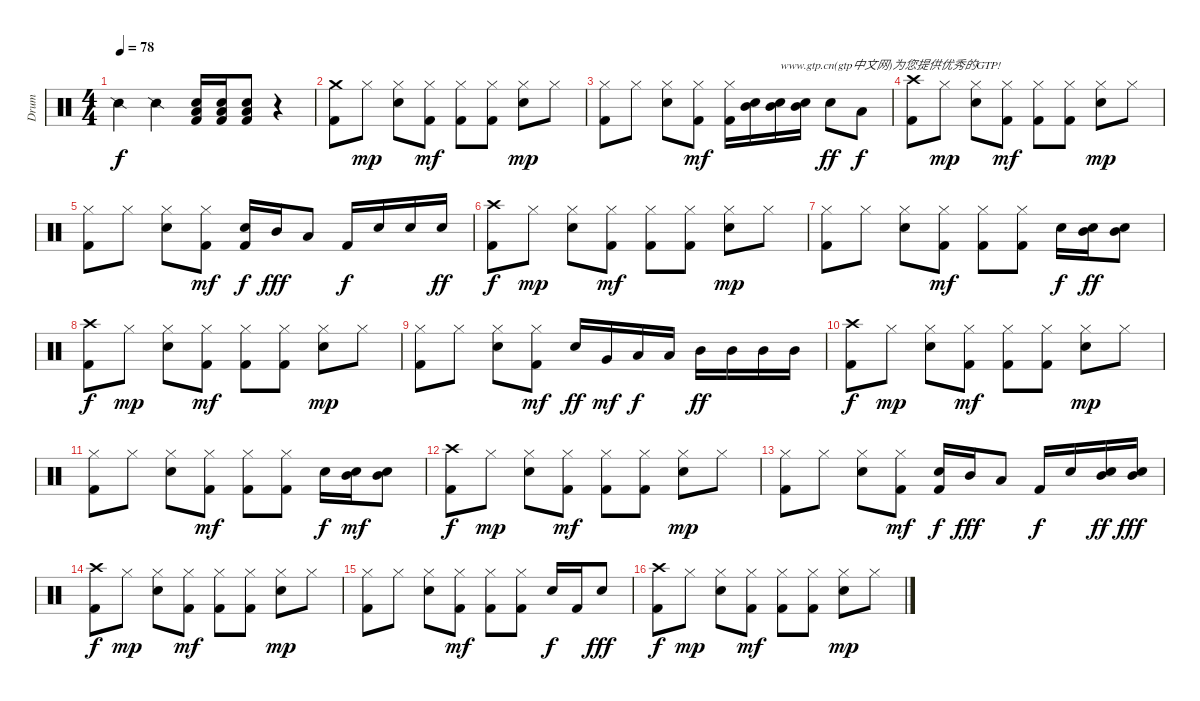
\track ("Drum" "Drum") {instrument percussion}
\staff {score}
\articulation defaults
\ts (4 4)
\tempo 78
\clef neutral
\ks c "Snare (side stick) 2".4{dy f} "Snare (side stick) 2".4
("Low Floor Tom (hit)" "Electric Snare (hit)" "Kick (hit) 2").16 ("Low Floor Tom (hit)" "Electric Snare (hit)" "Kick (hit) 2").16 ("Low Floor Tom (hit)" "Electric Snare (hit)" "Kick (hit) 2").8 r.4 |
("Crash medium (hit)" "Kick (hit) 2").8 "Hi-Hat (closed)".8{dy mp} ("Hi-Hat (closed)" "Electric Snare (hit)").8 ("Hi-Hat (closed)" "Kick (hit) 2").8{dy mf} ("Hi-Hat (closed)" "Kick (hit) 2").8 ("Hi-Hat (closed)" "Kick (hit) 2").8 ("Hi-Hat (closed)" "Electric Snare (hit)").8{dy mp} "Hi-Hat (closed)".8 |
("Hi-Hat (closed)" "Kick (hit) 2").8 "Hi-Hat (closed)".8 ("Hi-Hat (closed)" "Electric Snare (hit)").8 ("Hi-Hat (closed)" "Kick (hit) 2").8{dy mf} ("Hi-Hat (closed)" "Kick (hit) 2").16 ("Mid Tom (hit)" "Electric Snare (hit)").16 ("Mid Tom (hit)" "Electric Snare (hit)").16{txt "www.gtp.cn(gtp中文网)为您提供优秀的GTP!"} ("Mid Tom (hit)" "Electric Snare (hit)").16 "Electric Snare (hit)".8{dy ff} "Low Tom (hit)".8{dy f} |
("Crash high (hit)" "Kick (hit) 2").8 "Hi-Hat (closed)".8{dy mp} ("Hi-Hat (closed)" "Electric Snare (hit)").8 ("Hi-Hat (closed)" "Kick (hit) 2").8{dy mf} ("Hi-Hat (closed)" "Kick (hit) 2").8 ("Hi-Hat (closed)" "Kick (hit) 2").8 ("Hi-Hat (closed)" "Electric Snare (hit)").8{dy mp} "Hi-Hat (closed)".8 |
("Hi-Hat (closed)" "Kick (hit) 2").8 "Hi-Hat (closed)".8 ("Hi-Hat (closed)" "Electric Snare (hit)").8 ("Hi-Hat (closed)" "Kick (hit) 2").8{dy mf} ("Electric Snare (hit)" "Kick (hit) 2").16{dy f} "Mid Tom (hit)".16{dy fff} "Low Tom (hit)".8 "Kick (hit) 2".16{dy f} "Snare (hit) 2".16 "Snare (hit) 2".16 "Snare (hit) 2".16{dy ff} |
("Crash high (hit)" "Kick (hit) 2").8{dy f} "Hi-Hat (closed)".8{dy mp} ("Hi-Hat (closed)" "Electric Snare (hit)").8 ("Hi-Hat (closed)" "Kick (hit) 2").8{dy mf} ("Hi-Hat (closed)" "Kick (hit) 2").8 ("Hi-Hat (closed)" "Kick (hit) 2").8 ("Hi-Hat (closed)" "Electric Snare (hit)").8{dy mp} "Hi-Hat (closed)".8 |
("Hi-Hat (closed)" "Kick (hit) 2").8 "Hi-Hat (closed)".8 ("Hi-Hat (closed)" "Electric Snare (hit)").8 ("Hi-Hat (closed)" "Kick (hit) 2").8{dy mf} ("Hi-Hat (closed)" "Kick (hit) 2").8 ("Hi-Hat (closed)" "Kick (hit) 2").8 "Electric Snare (hit)".16{dy f} ("Mid Tom (hit)" "Snare (hit) 2").16{dy ff} ("Mid Tom (hit)" "Snare (hit) 2").8 |
("Crash high (hit)" "Kick (hit) 2").8{dy f} "Hi-Hat (closed)".8{dy mp} ("Hi-Hat (closed)" "Electric Snare (hit)").8 ("Hi-Hat (closed)" "Kick (hit) 2").8{dy mf} ("Hi-Hat (closed)" "Kick (hit) 2").8 ("Hi-Hat (closed)" "Kick (hit) 2").8 ("Hi-Hat (closed)" "Electric Snare (hit)").8{dy mp} "Hi-Hat (closed)".8 |
("Hi-Hat (closed)" "Kick (hit) 2").8 "Hi-Hat (closed)".8 ("Hi-Hat (closed)" "Electric Snare (hit)").8 ("Hi-Hat (closed)" "Kick (hit) 2").8{dy mf} "Electric Snare (hit)".16{dy ff} "Very Low Tom (hit)".16{dy mf} "Low Floor Tom (hit)".16{dy f} "Low Floor Tom (hit)".16 "Mid Tom (hit)".16{dy ff} "Mid Tom (hit)".16 "Mid Tom (hit)".16 "Mid Tom (hit)".16 |
("Crash high (hit)" "Kick (hit) 2").8{dy f} "Hi-Hat (closed)".8{dy mp} ("Hi-Hat (closed)" "Electric Snare (hit)").8 ("Hi-Hat (closed)" "Kick (hit) 2").8{dy mf} ("Hi-Hat (closed)" "Kick (hit) 2").8 ("Hi-Hat (closed)" "Kick (hit) 2").8 ("Hi-Hat (closed)" "Electric Snare (hit)").8{dy mp} "Hi-Hat (closed)".8 |
("Hi-Hat (closed)" "Kick (hit) 2").8 "Hi-Hat (closed)".8 ("Hi-Hat (closed)" "Electric Snare (hit)").8 ("Hi-Hat (closed)" "Kick (hit) 2").8{dy mf} ("Hi-Hat (closed)" "Kick (hit) 2").8 ("Hi-Hat (closed)" "Kick (hit) 2").8 "Electric Snare (hit)".16{dy f} ("Mid Tom (hit)" "Snare (hit) 2").16{dy mf} ("Mid Tom (hit)" "Snare (hit) 2").8 |
("Crash high (hit)" "Kick (hit) 2").8{dy f} "Hi-Hat (closed)".8{dy mp} ("Hi-Hat (closed)" "Electric Snare (hit)").8 ("Hi-Hat (closed)" "Kick (hit) 2").8{dy mf} ("Hi-Hat (closed)" "Kick (hit) 2").8 ("Hi-Hat (closed)" "Kick (hit) 2").8 ("Hi-Hat (closed)" "Electric Snare (hit)").8{dy mp} "Hi-Hat (closed)".8 |
("Hi-Hat (closed)" "Kick (hit) 2").8 "Hi-Hat (closed)".8 ("Hi-Hat (closed)" "Electric Snare (hit)").8 ("Hi-Hat (closed)" "Kick (hit) 2").8{dy mf} ("Electric Snare (hit)" "Kick (hit) 2").16{dy f} "Mid Tom (hit)".16{dy fff} "Low Tom (hit)".8 "Kick (hit) 2".16{dy f} "Snare (hit) 2".16 ("Mid Tom (hit)" "Snare (hit) 2").16{dy ff} ("Mid Tom (hit)" "Snare (hit) 2").16{dy fff} |
("Crash high (hit)" "Kick (hit) 2").8{dy f} "Hi-Hat (closed)".8{dy mp} ("Hi-Hat (closed)" "Electric Snare (hit)").8 ("Hi-Hat (closed)" "Kick (hit) 2").8{dy mf} ("Hi-Hat (closed)" "Kick (hit) 2").8 ("Hi-Hat (closed)" "Kick (hit) 2").8 ("Hi-Hat (closed)" "Electric Snare (hit)").8{dy mp} "Hi-Hat (closed)".8 |
("Hi-Hat (closed)" "Kick (hit) 2").8 "Hi-Hat (closed)".8 ("Hi-Hat (closed)" "Electric Snare (hit)").8 ("Hi-Hat (closed)" "Kick (hit) 2").8{dy mf} ("Hi-Hat (closed)" "Kick (hit) 2").8 ("Hi-Hat (closed)" "Kick (hit) 2").8 "Electric Snare (hit)".16{dy f} "Kick (hit) 2".16 "Electric Snare (hit)".8{dy fff} |
("Crash high (hit)" "Kick (hit) 2").8{dy f} "Hi-Hat (closed)".8{dy mp} ("Hi-Hat (closed)" "Electric Snare (hit)").8 ("Hi-Hat (closed)" "Kick (hit) 2").8{dy mf} ("Hi-Hat (closed)" "Kick (hit) 2").8 ("Hi-Hat (closed)" "Kick (hit) 2").8 ("Hi-Hat (closed)" "Electric Snare (hit)").8{dy mp} "Hi-Hat (closed)".8
